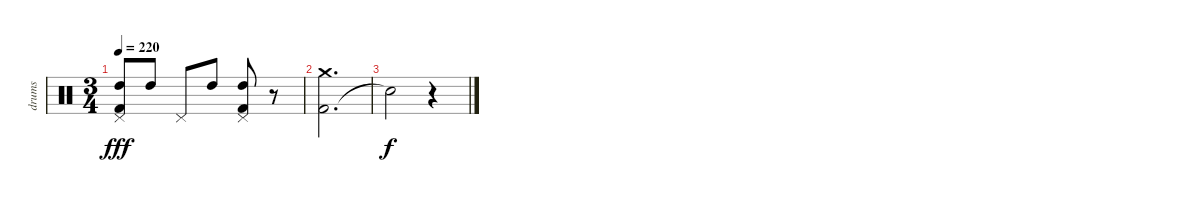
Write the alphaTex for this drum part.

\track ("drums" "drums") {instrument percussion}
\staff {score}
\articulation defaults
\ts (3 4)
\tempo 220
\clef neutral
\ks c
("Pedal Hi-Hat (hit)" "High Tom (hit)" "Kick (hit) 2").8{dy fff} "High Tom (hit)".8 "Pedal Hi-Hat (hit)".8 "High Tom (hit)".8 ("Pedal Hi-Hat (hit)" "High Tom (hit)" "Kick (hit) 2").8 r.8 |
("Kick (hit) 2" "Crash medium (hit)").2{d} |
"Snare (hit)"{t}.2{dy f} r.4
